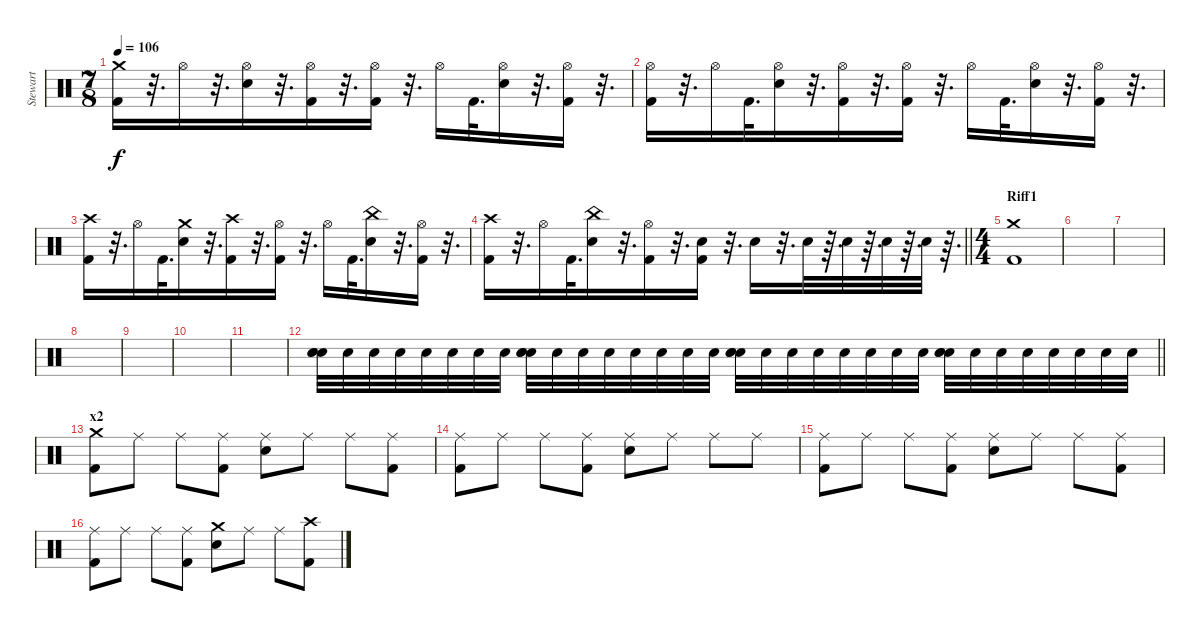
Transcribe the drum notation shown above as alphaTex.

\track ("Stewart" "Stewart") {instrument percussion}
\staff {score}
\articulation defaults
\ts (7 8)
\tempo 106
\clef neutral
\ks c
("Crash medium (hit)" "Kick (hit) 2").16{dy f} r.32{d} "Hi-Hat (open)".16 r.32{d} ("Hi-Hat (open)" "Electric Snare (hit)").16 r.32{d} ("Hi-Hat (open)" "Kick (hit) 2").16 r.32{d} ("Hi-Hat (open)" "Kick (hit) 2").16 r.32{d} "Hi-Hat (open)".16 "Kick (hit) 2".32{d} ("Hi-Hat (open)" "Electric Snare (hit)").16 r.32{d} ("Hi-Hat (open)" "Kick (hit) 2").16 r.32{d} |
("Hi-Hat (open)" "Kick (hit) 2").16 r.32{d} "Hi-Hat (open)".16 "Kick (hit) 2".32{d} ("Hi-Hat (open)" "Electric Snare (hit)").16 r.32{d} ("Hi-Hat (open)" "Kick (hit) 2").16 r.32{d} ("Hi-Hat (open)" "Kick (hit) 2").16 r.32{d} "Hi-Hat (open)".16 "Kick (hit) 2".32{d} ("Hi-Hat (open)" "Electric Snare (hit)").16 r.32{d} ("Hi-Hat (open)" "Kick (hit) 2").16 r.32{d} |
("Crash high (hit)" "Kick (hit) 2").16 r.32{d} "Hi-Hat (open)".16 "Kick (hit) 2".32{d} ("Crash medium (hit)" "Electric Snare (hit)").16 r.32{d} ("Crash high (hit)" "Kick (hit) 2").16 r.32{d} ("Hi-Hat (open)" "Kick (hit) 2").16 r.32{d} "Hi-Hat (open)".16 "Kick (hit) 2".32{d} ("China (hit)" "Electric Snare (hit)").16 r.32{d} ("Hi-Hat (open)" "Kick (hit) 2").16 r.32{d} |
\barLineRight lightlight
("Crash high (hit)" "Kick (hit) 2").16 r.32{d} "Hi-Hat (open)".16 "Kick (hit) 2".32{d} ("China (hit)" "Electric Snare (hit)").16 r.32{d} ("Hi-Hat (open)" "Kick (hit) 2").16 r.32{d} ("Electric Snare (hit)" "Kick (hit) 2").16 r.32{d} "Electric Snare (hit)".16 r.32{d} "Electric Snare (hit)".32 r.64{d} "Electric Snare (hit)".32 r.64{d} "Electric Snare (hit)".32 r.64{d} "Electric Snare (hit)".32 r.64{d} |
\ts (4 4)
\section ("" "Riff1")
("Crash medium (hit)" "Kick (hit) 2").1 |
|
|
|
|
|
|
\barLineRight lightlight
("Electric Snare (hit)" "Electric Snare (hit)" "Electric Snare (hit)").32{volume 1} "Electric Snare (hit)".32{volume 16} "Electric Snare (hit)".32 "Electric Snare (hit)".32 "Electric Snare (hit)".32 "Electric Snare (hit)".32 "Electric Snare (hit)".32 "Electric Snare (hit)".32 ("Electric Snare (hit)" "Electric Snare (hit)" "Electric Snare (hit)").32 "Electric Snare (hit)".32 "Electric Snare (hit)".32 "Electric Snare (hit)".32 "Electric Snare (hit)".32 "Electric Snare (hit)".32 "Electric Snare (hit)".32 "Electric Snare (hit)".32 ("Electric Snare (hit)" "Electric Snare (hit)" "Electric Snare (hit)").32 "Electric Snare (hit)".32 "Electric Snare (hit)".32 "Electric Snare (hit)".32 "Electric Snare (hit)".32 "Electric Snare (hit)".32 "Electric Snare (hit)".32 "Electric Snare (hit)".32 ("Electric Snare (hit)" "Electric Snare (hit)" "Electric Snare (hit)").32 "Electric Snare (hit)".32 "Electric Snare (hit)".32 "Electric Snare (hit)".32 "Electric Snare (hit)".32 "Electric Snare (hit)".32 "Electric Snare (hit)".32 "Electric Snare (hit)".32 |
\section ("" "x2")
("Crash medium (hit)" "Kick (hit) 2").8 "Ride (middle)".8 "Ride (middle)".8 ("Ride (middle)" "Kick (hit) 2").8 ("Ride (middle)" "Electric Snare (hit)").8 "Ride (middle)".8 "Ride (middle)".8 ("Ride (middle)" "Kick (hit) 2").8 |
("Ride (middle)" "Kick (hit) 2").8 "Ride (middle)".8 "Ride (middle)".8 ("Ride (middle)" "Kick (hit) 2").8 ("Ride (middle)" "Electric Snare (hit)").8 "Ride (middle)".8 "Ride (middle)".8 "Ride (middle)".8 |
("Ride (middle)" "Kick (hit) 2").8 "Ride (middle)".8 "Ride (middle)".8 ("Ride (middle)" "Kick (hit) 2").8 ("Ride (middle)" "Electric Snare (hit)").8 "Ride (middle)".8 "Ride (middle)".8 ("Ride (middle)" "Kick (hit) 2").8 |
("Ride (middle)" "Kick (hit) 2").8 "Ride (middle)".8 "Ride (middle)".8 ("Ride (middle)" "Kick (hit) 2").8 ("Crash medium (hit)" "Electric Snare (hit)").8 "Ride (middle)".8 "Ride (middle)".8 ("Crash high (hit)" "Kick (hit) 2").8
